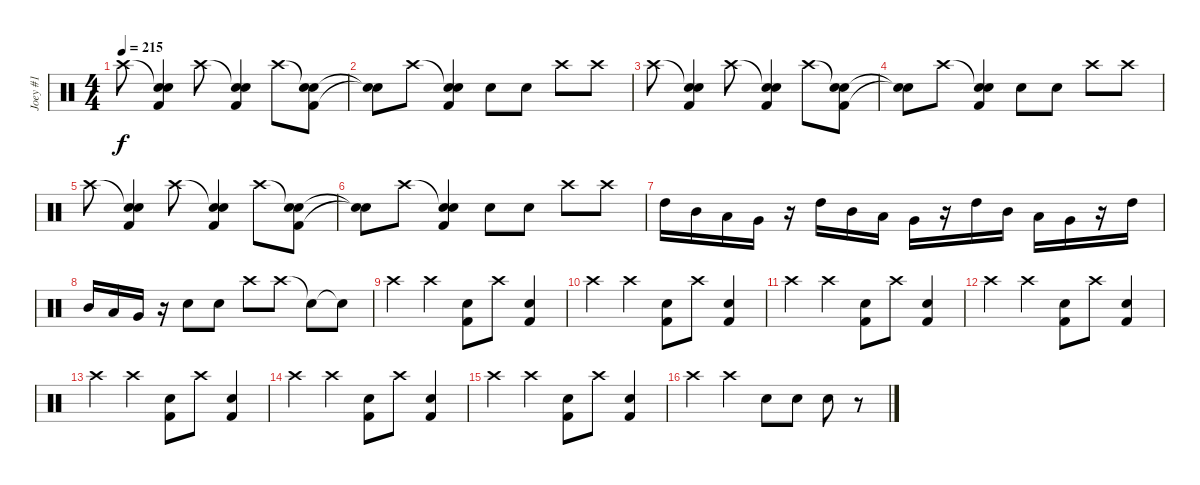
\track ("Joey #1" "Joey #1") {instrument percussion}
\staff {score}
\articulation defaults
\ts (4 4)
\tempo 215
\clef neutral
\ks c "Crash high (hit)".8{dy f volume 10}
("Snare (hit)"{t} "Kick (hit) 2" "Snare (hit) 2").4 "Crash high (hit)".8 ("Snare (hit)"{t} "Kick (hit) 2" "Snare (hit) 2").4 "Crash high (hit)".8 ("Snare (hit)"{t} "Kick (hit) 2" "Snare (hit) 2").8 |
("Snare (hit)"{t} "Snare (hit)"{t}).8 "Crash high (hit)".8 ("Snare (hit)"{t} "Kick (hit) 2" "Snare (hit) 2").4 "Snare (hit) 2".8 "Snare (hit) 2".8 "Crash high (hit)".8 "Crash high (hit)".8 |
"Crash high (hit)".8 ("Snare (hit)"{t} "Kick (hit) 2" "Snare (hit) 2").4 "Crash high (hit)".8 ("Snare (hit)"{t} "Kick (hit) 2" "Snare (hit) 2").4 "Crash high (hit)".8 ("Snare (hit)"{t} "Kick (hit) 2" "Snare (hit) 2").8 |
("Snare (hit)"{t} "Snare (hit)"{t}).8 "Crash high (hit)".8 ("Snare (hit)"{t} "Kick (hit) 2" "Snare (hit) 2").4 "Snare (hit) 2".8 "Snare (hit) 2".8 "Crash high (hit)".8 "Crash high (hit)".8 |
"Crash high (hit)".8 ("Snare (hit)"{t} "Kick (hit) 2" "Snare (hit) 2").4 "Crash high (hit)".8 ("Snare (hit)"{t} "Kick (hit) 2" "Snare (hit) 2").4 "Crash high (hit)".8 ("Snare (hit)"{t} "Kick (hit) 2" "Snare (hit) 2").8 |
("Snare (hit)"{t} "Snare (hit)"{t}).8 "Crash high (hit)".8 ("Snare (hit)"{t} "Kick (hit) 2" "Snare (hit) 2").4 "Snare (hit) 2".8 "Snare (hit) 2".8 "Crash high (hit)".8 "Crash high (hit)".8 |
"High Tom (hit)".16 "Mid Tom (hit)".16 "Low Tom (hit)".16 "Very Low Tom (hit)".16 r.16 "High Tom (hit)".16 "Mid Tom (hit)".16 "Low Tom (hit)".16 "Very Low Tom (hit)".16 r.16 "High Tom (hit)".16 "Mid Tom (hit)".16 "Low Tom (hit)".16 "Very Low Tom (hit)".16 r.16 "High Tom (hit)".16 |
"Mid Tom (hit)".16 "Low Tom (hit)".16 "Very Low Tom (hit)".16 r.16 "Snare (hit) 2".8 "Snare (hit) 2".8 "Crash high (hit)".8 "Crash high (hit)".8 "Snare (hit)"{t}.8 "Snare (hit)"{t}.8 |
"Crash high (hit)".4{volume 10} "Crash high (hit)".4 ("Kick (hit) 2" "Snare (hit) 2").8 "Crash high (hit)".8 ("Kick (hit) 2" "Snare (hit) 2").4 |
"Crash high (hit)".4 "Crash high (hit)".4 ("Kick (hit) 2" "Snare (hit) 2").8 "Crash high (hit)".8 ("Kick (hit) 2" "Snare (hit) 2").4 |
"Crash high (hit)".4 "Crash high (hit)".4 ("Kick (hit) 2" "Snare (hit) 2").8 "Crash high (hit)".8 ("Kick (hit) 2" "Snare (hit) 2").4 |
"Crash high (hit)".4 "Crash high (hit)".4 ("Kick (hit) 2" "Snare (hit) 2").8 "Crash high (hit)".8 ("Kick (hit) 2" "Snare (hit) 2").4 |
"Crash high (hit)".4 "Crash high (hit)".4 ("Kick (hit) 2" "Snare (hit) 2").8 "Crash high (hit)".8 ("Kick (hit) 2" "Snare (hit) 2").4 |
"Crash high (hit)".4 "Crash high (hit)".4 ("Kick (hit) 2" "Snare (hit) 2").8 "Crash high (hit)".8 ("Kick (hit) 2" "Snare (hit) 2").4 |
"Crash high (hit)".4 "Crash high (hit)".4 ("Kick (hit) 2" "Snare (hit) 2").8 "Crash high (hit)".8 ("Kick (hit) 2" "Snare (hit) 2").4 |
"Crash high (hit)".4 "Crash high (hit)".4 "Snare (hit) 2".8{volume 16} "Snare (hit) 2".8 "Snare (hit) 2".8 r.8{volume 10}
